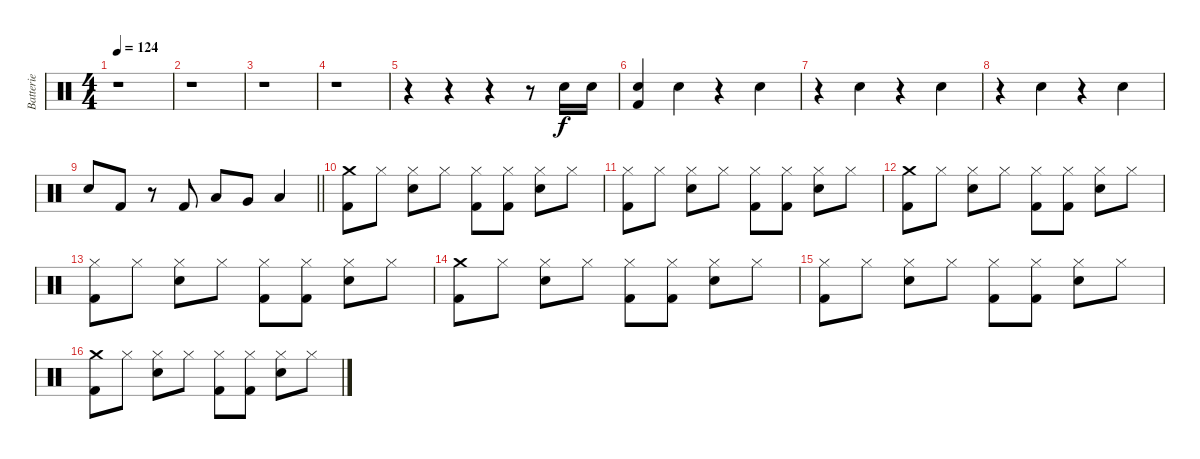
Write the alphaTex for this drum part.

\track ("Batterie" "Batterie") {instrument percussion}
\staff {score}
\articulation defaults
\ts (4 4)
\tempo 124
\clef neutral
\ks c
r.1{dy f} |
r.1 |
r.1 |
r.1 |
r.4 r.4 r.4 r.8 "Snare (hit) 2".16 "Snare (hit) 2".16 |
("Snare (hit) 2" "Kick (hit) 2").4 "Snare (hit) 2".4 r.4 "Snare (hit) 2".4 |
r.4 "Snare (hit) 2".4 r.4 "Snare (hit) 2".4 |
r.4 "Snare (hit) 2".4 r.4 "Snare (hit) 2".4 |
\barLineRight lightlight "Snare (hit) 2".8 "Kick (hit) 2".8
r.8 "Kick (hit) 2".8 "Low Tom (hit)".8 "Very Low Tom (hit)".8 "Low Floor Tom (hit)".4 |
("Crash medium (hit)" "Kick (hit) 2").8 "Hi-Hat (closed)".8 ("Hi-Hat (closed)" "Snare (hit) 2").8 "Hi-Hat (closed)".8 ("Hi-Hat (closed)" "Kick (hit) 2").8 ("Hi-Hat (closed)" "Kick (hit) 2").8 ("Hi-Hat (closed)" "Snare (hit) 2").8 "Hi-Hat (closed)".8 |
("Hi-Hat (closed)" "Kick (hit) 2").8 "Hi-Hat (closed)".8 ("Hi-Hat (closed)" "Snare (hit) 2").8 "Hi-Hat (closed)".8 ("Hi-Hat (closed)" "Kick (hit) 2").8 ("Hi-Hat (closed)" "Kick (hit) 2").8 ("Hi-Hat (closed)" "Snare (hit) 2").8 "Hi-Hat (closed)".8 |
("Crash medium (hit)" "Kick (hit) 2").8 "Hi-Hat (closed)".8 ("Hi-Hat (closed)" "Snare (hit) 2").8 "Hi-Hat (closed)".8 ("Hi-Hat (closed)" "Kick (hit) 2").8 ("Hi-Hat (closed)" "Kick (hit) 2").8 ("Hi-Hat (closed)" "Snare (hit) 2").8 "Hi-Hat (closed)".8 |
("Hi-Hat (closed)" "Kick (hit) 2").8 "Hi-Hat (closed)".8 ("Hi-Hat (closed)" "Snare (hit) 2").8 "Hi-Hat (closed)".8 ("Hi-Hat (closed)" "Kick (hit) 2").8 ("Hi-Hat (closed)" "Kick (hit) 2").8 ("Hi-Hat (closed)" "Snare (hit) 2").8 "Hi-Hat (closed)".8 |
("Crash medium (hit)" "Kick (hit) 2").8 "Hi-Hat (closed)".8 ("Hi-Hat (closed)" "Snare (hit) 2").8 "Hi-Hat (closed)".8 ("Hi-Hat (closed)" "Kick (hit) 2").8 ("Hi-Hat (closed)" "Kick (hit) 2").8 ("Hi-Hat (closed)" "Snare (hit) 2").8 "Hi-Hat (closed)".8 |
("Hi-Hat (closed)" "Kick (hit) 2").8 "Hi-Hat (closed)".8 ("Hi-Hat (closed)" "Snare (hit) 2").8 "Hi-Hat (closed)".8 ("Hi-Hat (closed)" "Kick (hit) 2").8 ("Hi-Hat (closed)" "Kick (hit) 2").8 ("Hi-Hat (closed)" "Snare (hit) 2").8 "Hi-Hat (closed)".8 |
("Crash medium (hit)" "Kick (hit) 2").8 "Hi-Hat (closed)".8 ("Hi-Hat (closed)" "Snare (hit) 2").8 "Hi-Hat (closed)".8 ("Hi-Hat (closed)" "Kick (hit) 2").8 ("Hi-Hat (closed)" "Kick (hit) 2").8 ("Hi-Hat (closed)" "Snare (hit) 2").8 "Hi-Hat (closed)".8
